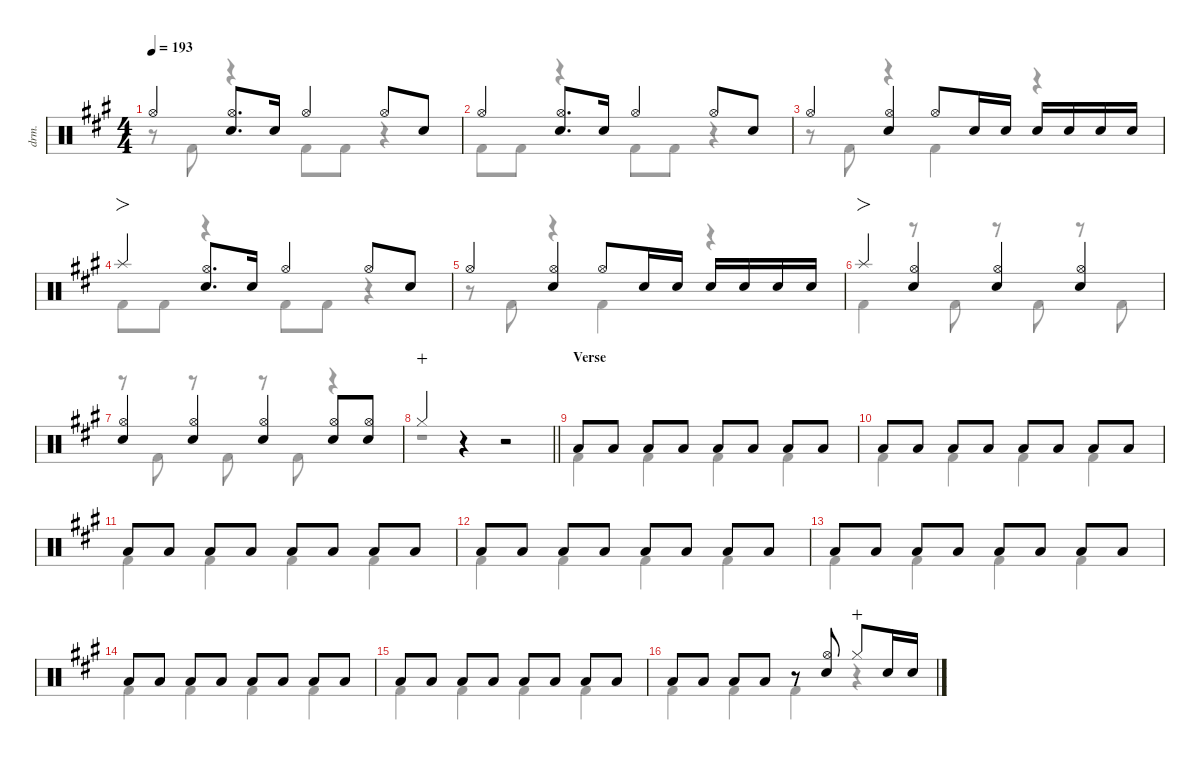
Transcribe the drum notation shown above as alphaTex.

\defaultSystemsLayout 4
\hideDynamics
\bracketExtendMode nobrackets
\track ("伊地知虹夏" "drm.") {instrument percussion}
\staff {score}
\articulation defaults
\voice
\ts (4 4)
\tempo 193
\clef neutral
\ks a "Hi-Hat (open)"{acc forcenatural}.4{dy mf beam Up}
("Hi-Hat (open)"{acc forcenatural} "Snare (hit) 2"{acc forcenatural}).8{d beam Up} "Snare (hit) 2"{acc forcenatural}.16{beam Up} "Hi-Hat (open)"{acc forcenatural}.4{beam Up} "Hi-Hat (open)"{acc forcenatural}.8{beam Up} "Snare (hit) 2"{acc forcenatural}.8{beam Up} |
"Hi-Hat (open)"{acc forcenatural}.4{beam Up} ("Hi-Hat (open)"{acc forcenatural} "Snare (hit) 2"{acc forcenatural}).8{d beam Up} "Snare (hit) 2"{acc forcenatural}.16{beam Up} "Hi-Hat (open)"{acc forcenatural}.4{beam Up} "Hi-Hat (open)"{acc forcenatural}.8{beam Up} "Snare (hit) 2"{acc forcenatural}.8{beam Up} |
"Hi-Hat (open)"{acc forcenatural}.4{beam Up} ("Hi-Hat (open)"{acc forcenatural} "Snare (hit) 2"{acc forcenatural}).4{beam Up} "Hi-Hat (open)"{acc forcenatural}.8{beam Up} "Snare (hit) 2"{acc forcenatural}.16{beam Up} "Snare (hit) 2"{acc forcenatural}.16{beam Up} "Snare (hit) 2"{acc forcenatural}.16{beam Up} "Snare (hit) 2"{acc forcenatural}.16{beam Up} "Snare (hit) 2"{acc forcenatural}.16{beam Up} "Snare (hit) 2"{acc forcenatural}.16{beam Up} |
"Splash (hit)"{acc forcenatural}.4{fo beam Up} ("Hi-Hat (open)"{acc forcenatural} "Snare (hit) 2"{acc forcenatural}).8{d beam Up} "Snare (hit) 2"{acc forcenatural}.16{beam Up} "Hi-Hat (open)"{acc forcenatural}.4{beam Up} "Hi-Hat (open)"{acc forcenatural}.8{beam Up} "Snare (hit) 2"{acc forcenatural}.8{beam Up} |
"Hi-Hat (open)"{acc forcenatural}.4{beam Up} ("Hi-Hat (open)"{acc forcenatural} "Snare (hit) 2"{acc forcenatural}).4{beam Up} "Hi-Hat (open)"{acc forcenatural}.8{beam Up} "Snare (hit) 2"{acc forcenatural}.16{beam Up} "Snare (hit) 2"{acc forcenatural}.16{beam Up} "Snare (hit) 2"{acc forcenatural}.16{beam Up} "Snare (hit) 2"{acc forcenatural}.16{beam Up} "Snare (hit) 2"{acc forcenatural}.16{beam Up} "Snare (hit) 2"{acc forcenatural}.16{beam Up} |
"Splash (hit)"{acc forcenatural}.4{fo beam Up} ("Hi-Hat (open)"{acc forcenatural} "Snare (hit) 2"{acc forcenatural}).4{beam Up} ("Hi-Hat (open)"{acc forcenatural} "Snare (hit) 2"{acc forcenatural}).4{beam Up} ("Hi-Hat (open)"{acc forcenatural} "Snare (hit) 2"{acc forcenatural}).4{beam Up} |
("Hi-Hat (open)"{acc forcenatural} "Snare (hit) 2"{acc forcenatural}).4{beam Up} ("Hi-Hat (open)"{acc forcenatural} "Snare (hit) 2"{acc forcenatural}).4{beam Up} ("Hi-Hat (open)"{acc forcenatural} "Snare (hit) 2"{acc forcenatural}).4{beam Up} ("Hi-Hat (open)"{acc forcenatural} "Snare (hit) 2"{acc forcenatural}).8{beam Up} ("Hi-Hat (open)"{acc forcenatural} "Snare (hit) 2"{acc forcenatural}).8{beam Up} |
\barLineRight lightlight "Hi-Hat (closed)"{acc forcenatural}.4{wahc beam Up}
r.4{beam Up} r.2{beam Up} |
\section ("" "Verse")
"Low Tom (hit)"{acc forcenatural}.8{beam Up} "Low Tom (hit)"{acc forcenatural}.8{beam Up} "Low Tom (hit)"{acc forcenatural}.8{beam Up} "Low Tom (hit)"{acc forcenatural}.8{beam Up} "Low Tom (hit)"{acc forcenatural}.8{beam Up} "Low Tom (hit)"{acc forcenatural}.8{beam Up} "Low Tom (hit)"{acc forcenatural}.8{beam Up} "Low Tom (hit)"{acc forcenatural}.8{beam Up} |
"Low Tom (hit)"{acc forcenatural}.8{beam Up} "Low Tom (hit)"{acc forcenatural}.8{beam Up} "Low Tom (hit)"{acc forcenatural}.8{beam Up} "Low Tom (hit)"{acc forcenatural}.8{beam Up} "Low Tom (hit)"{acc forcenatural}.8{beam Up} "Low Tom (hit)"{acc forcenatural}.8{beam Up} "Low Tom (hit)"{acc forcenatural}.8{beam Up} "Low Tom (hit)"{acc forcenatural}.8{beam Up} |
"Low Tom (hit)"{acc forcenatural}.8{beam Up} "Low Tom (hit)"{acc forcenatural}.8{beam Up} "Low Tom (hit)"{acc forcenatural}.8{beam Up} "Low Tom (hit)"{acc forcenatural}.8{beam Up} "Low Tom (hit)"{acc forcenatural}.8{beam Up} "Low Tom (hit)"{acc forcenatural}.8{beam Up} "Low Tom (hit)"{acc forcenatural}.8{beam Up} "Low Tom (hit)"{acc forcenatural}.8{beam Up} |
"Low Tom (hit)"{acc forcenatural}.8{beam Up} "Low Tom (hit)"{acc forcenatural}.8{beam Up} "Low Tom (hit)"{acc forcenatural}.8{beam Up} "Low Tom (hit)"{acc forcenatural}.8{beam Up} "Low Tom (hit)"{acc forcenatural}.8{beam Up} "Low Tom (hit)"{acc forcenatural}.8{beam Up} "Low Tom (hit)"{acc forcenatural}.8{beam Up} "Low Tom (hit)"{acc forcenatural}.8{beam Up} |
"Low Tom (hit)"{acc forcenatural}.8{beam Up} "Low Tom (hit)"{acc forcenatural}.8{beam Up} "Low Tom (hit)"{acc forcenatural}.8{beam Up} "Low Tom (hit)"{acc forcenatural}.8{beam Up} "Low Tom (hit)"{acc forcenatural}.8{beam Up} "Low Tom (hit)"{acc forcenatural}.8{beam Up} "Low Tom (hit)"{acc forcenatural}.8{beam Up} "Low Tom (hit)"{acc forcenatural}.8{beam Up} |
"Low Tom (hit)"{acc forcenatural}.8{beam Up} "Low Tom (hit)"{acc forcenatural}.8{beam Up} "Low Tom (hit)"{acc forcenatural}.8{beam Up} "Low Tom (hit)"{acc forcenatural}.8{beam Up} "Low Tom (hit)"{acc forcenatural}.8{beam Up} "Low Tom (hit)"{acc forcenatural}.8{beam Up} "Low Tom (hit)"{acc forcenatural}.8{beam Up} "Low Tom (hit)"{acc forcenatural}.8{beam Up} |
"Low Tom (hit)"{acc forcenatural}.8{beam Up} "Low Tom (hit)"{acc forcenatural}.8{beam Up} "Low Tom (hit)"{acc forcenatural}.8{beam Up} "Low Tom (hit)"{acc forcenatural}.8{beam Up} "Low Tom (hit)"{acc forcenatural}.8{beam Up} "Low Tom (hit)"{acc forcenatural}.8{beam Up} "Low Tom (hit)"{acc forcenatural}.8{beam Up} "Low Tom (hit)"{acc forcenatural}.8{beam Up} |
"Low Tom (hit)"{acc forcenatural}.8{beam Up} "Low Tom (hit)"{acc forcenatural}.8{beam Up} "Low Tom (hit)"{acc forcenatural}.8{beam Up} "Low Tom (hit)"{acc forcenatural}.8{beam Up} r.8{beam Up} ("Snare (hit) 2"{acc forcenatural} "Hi-Hat (open)"{acc forcenatural}).8{beam Up} "Hi-Hat (closed)"{acc forcenatural}.8{wahc beam Up} "Snare (hit) 2"{acc forcenatural}.16{beam Up} "Snare (hit) 2"{acc forcenatural}.16{beam Up}
\voice
\clef neutral
\ottava regular
\simile none
\ks a
r.8{dy mf beam Down} "Kick (hit) 2"{acc forcenatural}.8{beam Down} r.4{beam Down} "Kick (hit) 2"{acc forcenatural}.8{beam Down} "Kick (hit) 2"{acc forcenatural}.8{beam Down} r.4{beam Down} |
"Kick (hit) 2"{acc forcenatural}.8{beam Down} "Kick (hit) 2"{acc forcenatural}.8{beam Down} r.4{beam Down} "Kick (hit) 2"{acc forcenatural}.8{beam Down} "Kick (hit) 2"{acc forcenatural}.8{beam Down} r.4{beam Down} |
r.8{beam Down} "Kick (hit) 2"{acc forcenatural}.8{beam Down} r.4{beam Down} "Kick (hit) 2"{acc forcenatural}.4{beam Down} r.4{beam Down} |
"Kick (hit) 2"{acc forcenatural}.8{beam Down} "Kick (hit) 2"{acc forcenatural}.8{beam Down} r.4{beam Down} "Kick (hit) 2"{acc forcenatural}.8{beam Down} "Kick (hit) 2"{acc forcenatural}.8{beam Down} r.4{beam Down} |
r.8{beam Down} "Kick (hit) 2"{acc forcenatural}.8{beam Down} r.4{beam Down} "Kick (hit) 2"{acc forcenatural}.4{beam Down} r.4{beam Down} |
"Kick (hit) 2"{acc forcenatural}.4{beam Down} r.8{beam Down} "Kick (hit) 2"{acc forcenatural}.8{beam Down} r.8{beam Down} "Kick (hit) 2"{acc forcenatural}.8{beam Down} r.8{beam Down} "Kick (hit) 2"{acc forcenatural}.8{beam Down} |
r.8{beam Down} "Kick (hit) 2"{acc forcenatural}.8{beam Down} r.8{beam Down} "Kick (hit) 2"{acc forcenatural}.8{beam Down} r.8{beam Down} "Kick (hit) 2"{acc forcenatural}.8{beam Down} r.4{beam Down} |
\barLineRight lightlight
r.1{beam Down} |
"Kick (hit) 2"{acc forcenatural}.4{beam Down} "Kick (hit) 2"{acc forcenatural}.4{beam Down} "Kick (hit) 2"{acc forcenatural}.4{beam Down} "Kick (hit) 2"{acc forcenatural}.4{beam Down} |
"Kick (hit) 2"{acc forcenatural}.4{beam Down} "Kick (hit) 2"{acc forcenatural}.4{beam Down} "Kick (hit) 2"{acc forcenatural}.4{beam Down} "Kick (hit) 2"{acc forcenatural}.4{beam Down} |
"Kick (hit) 2"{acc forcenatural}.4{beam Down} "Kick (hit) 2"{acc forcenatural}.4{beam Down} "Kick (hit) 2"{acc forcenatural}.4{beam Down} "Kick (hit) 2"{acc forcenatural}.4{beam Down} |
"Kick (hit) 2"{acc forcenatural}.4{beam Down} "Kick (hit) 2"{acc forcenatural}.4{beam Down} "Kick (hit) 2"{acc forcenatural}.4{beam Down} "Kick (hit) 2"{acc forcenatural}.4{beam Down} |
"Kick (hit) 2"{acc forcenatural}.4{beam Down} "Kick (hit) 2"{acc forcenatural}.4{beam Down} "Kick (hit) 2"{acc forcenatural}.4{beam Down} "Kick (hit) 2"{acc forcenatural}.4{beam Down} |
"Kick (hit) 2"{acc forcenatural}.4{beam Down} "Kick (hit) 2"{acc forcenatural}.4{beam Down} "Kick (hit) 2"{acc forcenatural}.4{beam Down} "Kick (hit) 2"{acc forcenatural}.4{beam Down} |
"Kick (hit) 2"{acc forcenatural}.4{beam Down} "Kick (hit) 2"{acc forcenatural}.4{beam Down} "Kick (hit) 2"{acc forcenatural}.4{beam Down} "Kick (hit) 2"{acc forcenatural}.4{beam Down} |
"Kick (hit) 2"{acc forcenatural}.4{beam Down} "Kick (hit) 2"{acc forcenatural}.4{beam Down} "Kick (hit) 2"{acc forcenatural}.4{beam Down} r.4{beam Down}
